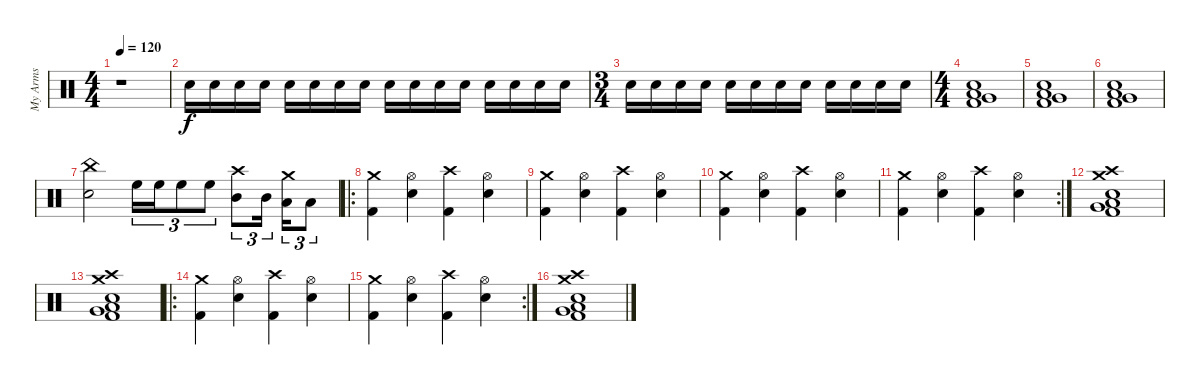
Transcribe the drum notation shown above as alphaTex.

\track ("My Arms" "My Arms") {instrument percussion}
\staff {score}
\articulation defaults
\ts (4 4)
\tempo 120
\clef neutral
\ks c
r.1{dy f volume 0} |
"Snare (hit) 2".16{volume 13} "Snare (hit) 2".16 "Snare (hit) 2".16 "Snare (hit) 2".16 "Snare (hit) 2".16 "Snare (hit) 2".16 "Snare (hit) 2".16 "Snare (hit) 2".16 "Snare (hit) 2".16 "Snare (hit) 2".16 "Snare (hit) 2".16 "Snare (hit) 2".16 "Snare (hit) 2".16 "Snare (hit) 2".16 "Snare (hit) 2".16 "Snare (hit) 2".16 |
\ts (3 4)
"Snare (hit) 2".16 "Snare (hit) 2".16 "Snare (hit) 2".16 "Snare (hit) 2".16 "Snare (hit) 2".16 "Snare (hit) 2".16 "Snare (hit) 2".16 "Snare (hit) 2".16 "Snare (hit) 2".16 "Snare (hit) 2".16 "Snare (hit) 2".16 "Snare (hit) 2".16 |
\ts (4 4)
("Very Low Tom (hit)" "Low Tom (hit)" "Kick (hit) 2" "Snare (hit) 2").1 |
("Very Low Tom (hit)" "Low Tom (hit)" "Kick (hit) 2" "Snare (hit) 2").1 |
("Very Low Tom (hit)" "Low Tom (hit)" "Kick (hit) 2" "Snare (hit) 2").1 |
("China (hit)" "Snare (hit) 2").2 "High Floor Tom (hit)".16{tu (3 2)} "High Floor Tom (hit)".16{tu (3 2)} "High Floor Tom (hit)".8{tu (3 2)} "High Floor Tom (hit)".8{tu (3 2)} ("Crash high (hit)" "Mid Tom (hit)").8{tu (3 2)} "Mid Tom (hit)".16{tu (3 2)} ("Crash medium (hit)" "Low Tom (hit)").16{tu (3 2)} "Low Tom (hit)".8{tu (3 2)} |
\ro
("Crash medium (hit)" "Kick (hit) 2").4 ("Hi-Hat (open)" "Snare (hit) 2").4 ("Crash high (hit)" "Kick (hit) 2").4 ("Hi-Hat (open)" "Snare (hit) 2").4 |
("Crash medium (hit)" "Kick (hit) 2").4 ("Hi-Hat (open)" "Snare (hit) 2").4 ("Crash high (hit)" "Kick (hit) 2").4 ("Hi-Hat (open)" "Snare (hit) 2").4 |
("Crash medium (hit)" "Kick (hit) 2").4 ("Hi-Hat (open)" "Snare (hit) 2").4 ("Crash high (hit)" "Kick (hit) 2").4 ("Hi-Hat (open)" "Snare (hit) 2").4 |
\rc 2
("Crash medium (hit)" "Kick (hit) 2").4 ("Hi-Hat (open)" "Snare (hit) 2").4 ("Crash high (hit)" "Kick (hit) 2").4 ("Hi-Hat (open)" "Snare (hit) 2").4 |
("Crash high (hit)" "Crash medium (hit)" "Kick (hit) 2" "Snare (hit) 2" "Low Tom (hit)" "Very Low Tom (hit)").1 |
("Crash high (hit)" "Crash medium (hit)" "Kick (hit) 2" "Snare (hit) 2" "Low Tom (hit)" "Very Low Tom (hit)").1 |
\ro
("Crash medium (hit)" "Kick (hit) 2").4 ("Hi-Hat (open)" "Snare (hit) 2").4 ("Crash high (hit)" "Kick (hit) 2").4 ("Hi-Hat (open)" "Snare (hit) 2").4 |
\rc 2
("Crash medium (hit)" "Kick (hit) 2").4 ("Hi-Hat (open)" "Snare (hit) 2").4 ("Crash high (hit)" "Kick (hit) 2").4 ("Hi-Hat (open)" "Snare (hit) 2").4 |
("Crash high (hit)" "Crash medium (hit)" "Kick (hit) 2" "Snare (hit) 2" "Low Tom (hit)" "Very Low Tom (hit)").1
